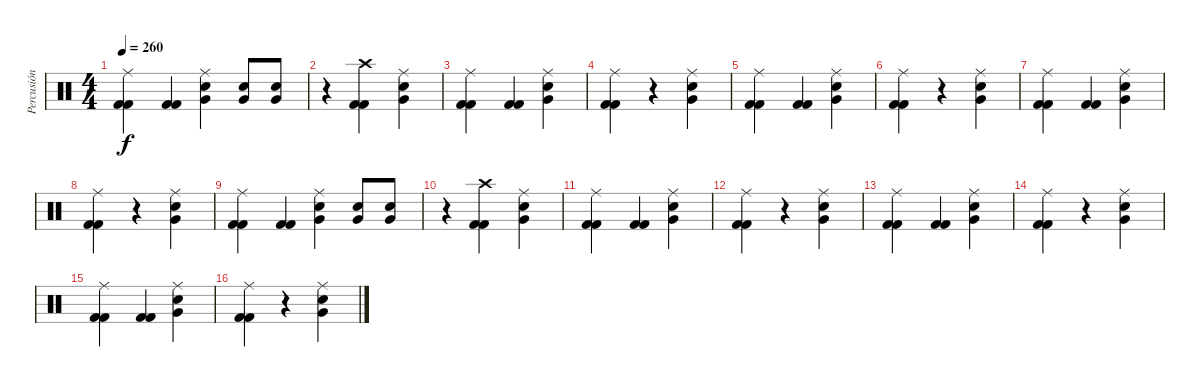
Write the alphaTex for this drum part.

\track ("Percusión" "Percusión") {instrument percussion}
\staff {score}
\articulation defaults
\ts (4 4)
\tempo 260
\clef neutral
\ks c
("Kick (hit) 2" "Kick (hit) 2" "Ride (middle)").4{dy f} ("Kick (hit) 2" "Kick (hit) 2").4 ("Electric Snare (hit)" "Very Low Tom (hit)" "Ride (middle)").4 ("Electric Snare (hit)" "Very Low Tom (hit)").8 ("Electric Snare (hit)" "Very Low Tom (hit)").8 |
r.4 ("Kick (hit) 2" "Kick (hit) 2" "Crash high (hit)").4 ("Electric Snare (hit)" "Very Low Tom (hit)" "Ride (middle)").4 |
("Kick (hit) 2" "Kick (hit) 2" "Ride (middle)").4 ("Kick (hit) 2" "Kick (hit) 2").4 ("Electric Snare (hit)" "Very Low Tom (hit)" "Ride (middle)").4 |
("Kick (hit) 2" "Kick (hit) 2" "Ride (middle)").4 r.4 ("Electric Snare (hit)" "Very Low Tom (hit)" "Ride (middle)").4 |
("Kick (hit) 2" "Kick (hit) 2" "Ride (middle)").4 ("Kick (hit) 2" "Kick (hit) 2").4 ("Electric Snare (hit)" "Very Low Tom (hit)" "Ride (middle)").4 |
("Kick (hit) 2" "Kick (hit) 2" "Ride (middle)").4 r.4 ("Electric Snare (hit)" "Very Low Tom (hit)" "Ride (middle)").4 |
("Kick (hit) 2" "Kick (hit) 2" "Ride (middle)").4 ("Kick (hit) 2" "Kick (hit) 2").4 ("Electric Snare (hit)" "Very Low Tom (hit)" "Ride (middle)").4 |
("Kick (hit) 2" "Kick (hit) 2" "Ride (middle)").4 r.4 ("Electric Snare (hit)" "Very Low Tom (hit)" "Ride (middle)").4 |
("Kick (hit) 2" "Kick (hit) 2" "Ride (middle)").4 ("Kick (hit) 2" "Kick (hit) 2").4 ("Electric Snare (hit)" "Very Low Tom (hit)" "Ride (middle)").4 ("Electric Snare (hit)" "Very Low Tom (hit)").8 ("Electric Snare (hit)" "Very Low Tom (hit)").8 |
r.4 ("Kick (hit) 2" "Kick (hit) 2" "Crash high (hit)").4 ("Electric Snare (hit)" "Very Low Tom (hit)" "Ride (middle)").4 |
("Kick (hit) 2" "Kick (hit) 2" "Ride (middle)").4 ("Kick (hit) 2" "Kick (hit) 2").4 ("Electric Snare (hit)" "Very Low Tom (hit)" "Ride (middle)").4 |
("Kick (hit) 2" "Kick (hit) 2" "Ride (middle)").4 r.4 ("Electric Snare (hit)" "Very Low Tom (hit)" "Ride (middle)").4 |
("Kick (hit) 2" "Kick (hit) 2" "Ride (middle)").4 ("Kick (hit) 2" "Kick (hit) 2").4 ("Electric Snare (hit)" "Very Low Tom (hit)" "Ride (middle)").4 |
("Kick (hit) 2" "Kick (hit) 2" "Ride (middle)").4 r.4 ("Electric Snare (hit)" "Very Low Tom (hit)" "Ride (middle)").4 |
("Kick (hit) 2" "Kick (hit) 2" "Ride (middle)").4 ("Kick (hit) 2" "Kick (hit) 2").4 ("Electric Snare (hit)" "Very Low Tom (hit)" "Ride (middle)").4 |
("Kick (hit) 2" "Kick (hit) 2" "Ride (middle)").4 r.4 ("Electric Snare (hit)" "Very Low Tom (hit)" "Ride (middle)").4
